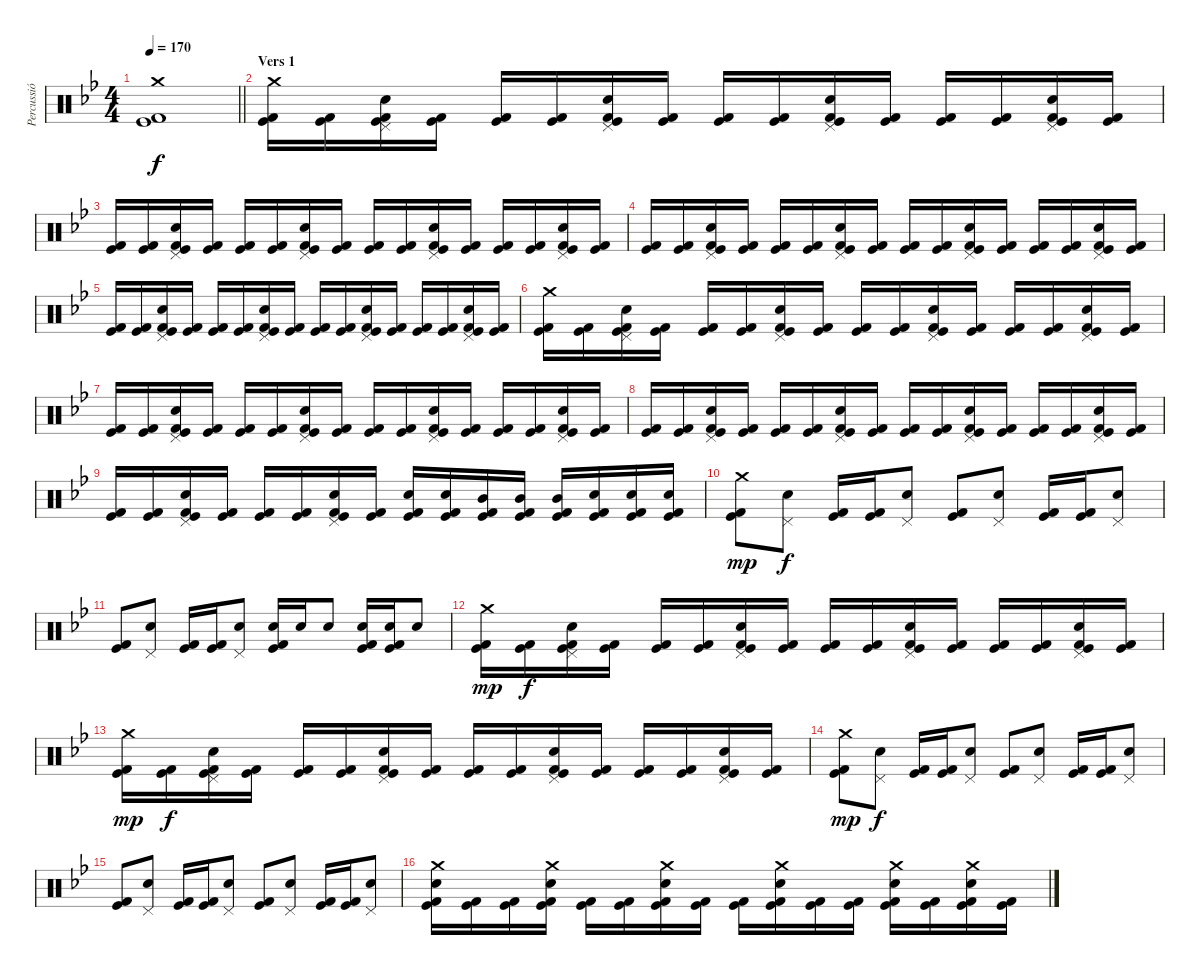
\track ("Percussió" "Percussió") {instrument percussion}
\staff {score}
\articulation defaults
\ts (4 4)
\tempo 170
\clef neutral
\barLineRight lightlight
\ks gminor
("Crash medium (hit)" "Kick (hit)" "Kick (hit) 2").1{dy f} |
\section ("" "Vers 1")
("Crash medium (hit)" "Kick (hit)" "Kick (hit) 2").16 ("Kick (hit)" "Kick (hit) 2").16 ("Pedal Hi-Hat (hit)" "Electric Snare (hit)" "Kick (hit)" "Kick (hit) 2").16 ("Kick (hit)" "Kick (hit) 2").16 ("Kick (hit)" "Kick (hit) 2").16 ("Kick (hit)" "Kick (hit) 2").16 ("Pedal Hi-Hat (hit)" "Electric Snare (hit)" "Kick (hit)" "Kick (hit) 2").16 ("Kick (hit)" "Kick (hit) 2").16 ("Kick (hit)" "Kick (hit) 2").16 ("Kick (hit)" "Kick (hit) 2").16 ("Pedal Hi-Hat (hit)" "Electric Snare (hit)" "Kick (hit)" "Kick (hit) 2").16 ("Kick (hit)" "Kick (hit) 2").16 ("Kick (hit)" "Kick (hit) 2").16 ("Kick (hit)" "Kick (hit) 2").16 ("Pedal Hi-Hat (hit)" "Electric Snare (hit)" "Kick (hit)" "Kick (hit) 2").16 ("Kick (hit)" "Kick (hit) 2").16 |
("Kick (hit)" "Kick (hit) 2").16 ("Kick (hit)" "Kick (hit) 2").16 ("Pedal Hi-Hat (hit)" "Electric Snare (hit)" "Kick (hit)" "Kick (hit) 2").16 ("Kick (hit)" "Kick (hit) 2").16 ("Kick (hit)" "Kick (hit) 2").16 ("Kick (hit)" "Kick (hit) 2").16 ("Pedal Hi-Hat (hit)" "Electric Snare (hit)" "Kick (hit)" "Kick (hit) 2").16 ("Kick (hit)" "Kick (hit) 2").16 ("Kick (hit)" "Kick (hit) 2").16 ("Kick (hit)" "Kick (hit) 2").16 ("Pedal Hi-Hat (hit)" "Electric Snare (hit)" "Kick (hit)" "Kick (hit) 2").16 ("Kick (hit)" "Kick (hit) 2").16 ("Kick (hit)" "Kick (hit) 2").16 ("Kick (hit)" "Kick (hit) 2").16 ("Pedal Hi-Hat (hit)" "Electric Snare (hit)" "Kick (hit)" "Kick (hit) 2").16 ("Kick (hit)" "Kick (hit) 2").16 |
("Kick (hit)" "Kick (hit) 2").16 ("Kick (hit)" "Kick (hit) 2").16 ("Pedal Hi-Hat (hit)" "Electric Snare (hit)" "Kick (hit)" "Kick (hit) 2").16 ("Kick (hit)" "Kick (hit) 2").16 ("Kick (hit)" "Kick (hit) 2").16 ("Kick (hit)" "Kick (hit) 2").16 ("Pedal Hi-Hat (hit)" "Electric Snare (hit)" "Kick (hit)" "Kick (hit) 2").16 ("Kick (hit)" "Kick (hit) 2").16 ("Kick (hit)" "Kick (hit) 2").16 ("Kick (hit)" "Kick (hit) 2").16 ("Pedal Hi-Hat (hit)" "Electric Snare (hit)" "Kick (hit)" "Kick (hit) 2").16 ("Kick (hit)" "Kick (hit) 2").16 ("Kick (hit)" "Kick (hit) 2").16 ("Kick (hit)" "Kick (hit) 2").16 ("Pedal Hi-Hat (hit)" "Electric Snare (hit)" "Kick (hit)" "Kick (hit) 2").16 ("Kick (hit)" "Kick (hit) 2").16 |
("Kick (hit)" "Kick (hit) 2").16 ("Kick (hit)" "Kick (hit) 2").16 ("Pedal Hi-Hat (hit)" "Electric Snare (hit)" "Kick (hit)" "Kick (hit) 2").16 ("Kick (hit)" "Kick (hit) 2").16 ("Kick (hit)" "Kick (hit) 2").16 ("Kick (hit)" "Kick (hit) 2").16 ("Pedal Hi-Hat (hit)" "Electric Snare (hit)" "Kick (hit)" "Kick (hit) 2").16 ("Kick (hit)" "Kick (hit) 2").16 ("Kick (hit)" "Kick (hit) 2").16 ("Kick (hit)" "Kick (hit) 2").16 ("Pedal Hi-Hat (hit)" "Electric Snare (hit)" "Kick (hit)" "Kick (hit) 2").16 ("Kick (hit)" "Kick (hit) 2").16 ("Kick (hit)" "Kick (hit) 2").16 ("Kick (hit)" "Kick (hit) 2").16 ("Pedal Hi-Hat (hit)" "Electric Snare (hit)" "Kick (hit)" "Kick (hit) 2").16 ("Kick (hit)" "Kick (hit) 2").16 |
("Crash medium (hit)" "Kick (hit)" "Kick (hit) 2").16 ("Kick (hit)" "Kick (hit) 2").16 ("Pedal Hi-Hat (hit)" "Electric Snare (hit)" "Kick (hit)" "Kick (hit) 2").16 ("Kick (hit)" "Kick (hit) 2").16 ("Kick (hit)" "Kick (hit) 2").16 ("Kick (hit)" "Kick (hit) 2").16 ("Pedal Hi-Hat (hit)" "Electric Snare (hit)" "Kick (hit)" "Kick (hit) 2").16 ("Kick (hit)" "Kick (hit) 2").16 ("Kick (hit)" "Kick (hit) 2").16 ("Kick (hit)" "Kick (hit) 2").16 ("Pedal Hi-Hat (hit)" "Electric Snare (hit)" "Kick (hit)" "Kick (hit) 2").16 ("Kick (hit)" "Kick (hit) 2").16 ("Kick (hit)" "Kick (hit) 2").16 ("Kick (hit)" "Kick (hit) 2").16 ("Pedal Hi-Hat (hit)" "Electric Snare (hit)" "Kick (hit)" "Kick (hit) 2").16 ("Kick (hit)" "Kick (hit) 2").16 |
("Kick (hit)" "Kick (hit) 2").16 ("Kick (hit)" "Kick (hit) 2").16 ("Pedal Hi-Hat (hit)" "Electric Snare (hit)" "Kick (hit)" "Kick (hit) 2").16 ("Kick (hit)" "Kick (hit) 2").16 ("Kick (hit)" "Kick (hit) 2").16 ("Kick (hit)" "Kick (hit) 2").16 ("Pedal Hi-Hat (hit)" "Electric Snare (hit)" "Kick (hit)" "Kick (hit) 2").16 ("Kick (hit)" "Kick (hit) 2").16 ("Kick (hit)" "Kick (hit) 2").16 ("Kick (hit)" "Kick (hit) 2").16 ("Pedal Hi-Hat (hit)" "Electric Snare (hit)" "Kick (hit)" "Kick (hit) 2").16 ("Kick (hit)" "Kick (hit) 2").16 ("Kick (hit)" "Kick (hit) 2").16 ("Kick (hit)" "Kick (hit) 2").16 ("Pedal Hi-Hat (hit)" "Electric Snare (hit)" "Kick (hit)" "Kick (hit) 2").16 ("Kick (hit)" "Kick (hit) 2").16 |
("Kick (hit)" "Kick (hit) 2").16 ("Kick (hit)" "Kick (hit) 2").16 ("Pedal Hi-Hat (hit)" "Electric Snare (hit)" "Kick (hit)" "Kick (hit) 2").16 ("Kick (hit)" "Kick (hit) 2").16 ("Kick (hit)" "Kick (hit) 2").16 ("Kick (hit)" "Kick (hit) 2").16 ("Pedal Hi-Hat (hit)" "Electric Snare (hit)" "Kick (hit)" "Kick (hit) 2").16 ("Kick (hit)" "Kick (hit) 2").16 ("Kick (hit)" "Kick (hit) 2").16 ("Kick (hit)" "Kick (hit) 2").16 ("Pedal Hi-Hat (hit)" "Electric Snare (hit)" "Kick (hit)" "Kick (hit) 2").16 ("Kick (hit)" "Kick (hit) 2").16 ("Kick (hit)" "Kick (hit) 2").16 ("Kick (hit)" "Kick (hit) 2").16 ("Pedal Hi-Hat (hit)" "Electric Snare (hit)" "Kick (hit)" "Kick (hit) 2").16 ("Kick (hit)" "Kick (hit) 2").16 |
("Kick (hit)" "Kick (hit) 2").16 ("Kick (hit)" "Kick (hit) 2").16 ("Pedal Hi-Hat (hit)" "Electric Snare (hit)" "Kick (hit)" "Kick (hit) 2").16 ("Kick (hit)" "Kick (hit) 2").16 ("Kick (hit)" "Kick (hit) 2").16 ("Kick (hit)" "Kick (hit) 2").16 ("Pedal Hi-Hat (hit)" "Electric Snare (hit)" "Kick (hit)" "Kick (hit) 2").16 ("Kick (hit)" "Kick (hit) 2").16 ("Electric Snare (hit)" "Kick (hit)" "Kick (hit) 2").16 ("Electric Snare (hit)" "Kick (hit)" "Kick (hit) 2").16 ("Mid Tom (hit)" "Kick (hit)" "Kick (hit) 2").16 ("Mid Tom (hit)" "Kick (hit)" "Kick (hit) 2").16 ("Mid Tom (hit)" "Kick (hit)" "Kick (hit) 2").16 ("Electric Snare (hit)" "Kick (hit)" "Kick (hit) 2").16 ("Electric Snare (hit)" "Kick (hit)" "Kick (hit) 2").16 ("Electric Snare (hit)" "Kick (hit)" "Kick (hit) 2").16 |
("Crash medium (hit)" "Kick (hit)" "Kick (hit) 2").8{dy mp} ("Pedal Hi-Hat (hit)" "Electric Snare (hit)").8{dy f} ("Kick (hit)" "Kick (hit) 2").16 ("Kick (hit)" "Kick (hit) 2").16 ("Pedal Hi-Hat (hit)" "Electric Snare (hit)").8 ("Kick (hit)" "Kick (hit) 2").8 ("Pedal Hi-Hat (hit)" "Electric Snare (hit)").8 ("Kick (hit)" "Kick (hit) 2").16 ("Kick (hit)" "Kick (hit) 2").16 ("Pedal Hi-Hat (hit)" "Electric Snare (hit)").8 |
("Kick (hit)" "Kick (hit) 2").8 ("Pedal Hi-Hat (hit)" "Electric Snare (hit)").8 ("Kick (hit)" "Kick (hit) 2").16 ("Kick (hit)" "Kick (hit) 2").16 ("Pedal Hi-Hat (hit)" "Electric Snare (hit)").8 ("Electric Snare (hit)" "Kick (hit)" "Kick (hit) 2").16 "Electric Snare (hit)".16 "Electric Snare (hit)".8 ("Electric Snare (hit)" "Kick (hit)" "Kick (hit) 2").16 ("Electric Snare (hit)" "Kick (hit)" "Kick (hit) 2").16 "Electric Snare (hit)".8 |
("Crash medium (hit)" "Kick (hit)" "Kick (hit) 2").16{dy mp} ("Kick (hit)" "Kick (hit) 2").16{dy f} ("Pedal Hi-Hat (hit)" "Electric Snare (hit)" "Kick (hit)" "Kick (hit) 2").16 ("Kick (hit)" "Kick (hit) 2").16 ("Kick (hit)" "Kick (hit) 2").16 ("Kick (hit)" "Kick (hit) 2").16 ("Pedal Hi-Hat (hit)" "Electric Snare (hit)" "Kick (hit)" "Kick (hit) 2").16 ("Kick (hit)" "Kick (hit) 2").16 ("Kick (hit)" "Kick (hit) 2").16 ("Kick (hit)" "Kick (hit) 2").16 ("Pedal Hi-Hat (hit)" "Electric Snare (hit)" "Kick (hit)" "Kick (hit) 2").16 ("Kick (hit)" "Kick (hit) 2").16 ("Kick (hit)" "Kick (hit) 2").16 ("Kick (hit)" "Kick (hit) 2").16 ("Pedal Hi-Hat (hit)" "Electric Snare (hit)" "Kick (hit)" "Kick (hit) 2").16 ("Kick (hit)" "Kick (hit) 2").16 |
("Crash medium (hit)" "Kick (hit)" "Kick (hit) 2").16{dy mp} ("Kick (hit)" "Kick (hit) 2").16{dy f} ("Pedal Hi-Hat (hit)" "Electric Snare (hit)" "Kick (hit)" "Kick (hit) 2").16 ("Kick (hit)" "Kick (hit) 2").16 ("Kick (hit)" "Kick (hit) 2").16 ("Kick (hit)" "Kick (hit) 2").16 ("Pedal Hi-Hat (hit)" "Electric Snare (hit)" "Kick (hit)" "Kick (hit) 2").16 ("Kick (hit)" "Kick (hit) 2").16 ("Kick (hit)" "Kick (hit) 2").16 ("Kick (hit)" "Kick (hit) 2").16 ("Pedal Hi-Hat (hit)" "Electric Snare (hit)" "Kick (hit)" "Kick (hit) 2").16 ("Kick (hit)" "Kick (hit) 2").16 ("Kick (hit)" "Kick (hit) 2").16 ("Kick (hit)" "Kick (hit) 2").16 ("Pedal Hi-Hat (hit)" "Electric Snare (hit)" "Kick (hit)" "Kick (hit) 2").16 ("Kick (hit)" "Kick (hit) 2").16 |
("Crash medium (hit)" "Kick (hit)" "Kick (hit) 2").8{dy mp} ("Pedal Hi-Hat (hit)" "Electric Snare (hit)").8{dy f} ("Kick (hit)" "Kick (hit) 2").16 ("Kick (hit)" "Kick (hit) 2").16 ("Pedal Hi-Hat (hit)" "Electric Snare (hit)").8 ("Kick (hit)" "Kick (hit) 2").8 ("Pedal Hi-Hat (hit)" "Electric Snare (hit)").8 ("Kick (hit)" "Kick (hit) 2").16 ("Kick (hit)" "Kick (hit) 2").16 ("Pedal Hi-Hat (hit)" "Electric Snare (hit)").8 |
("Kick (hit)" "Kick (hit) 2").8 ("Pedal Hi-Hat (hit)" "Electric Snare (hit)").8 ("Kick (hit)" "Kick (hit) 2").16 ("Kick (hit)" "Kick (hit) 2").16 ("Pedal Hi-Hat (hit)" "Electric Snare (hit)").8 ("Kick (hit)" "Kick (hit) 2").8 ("Pedal Hi-Hat (hit)" "Electric Snare (hit)").8 ("Kick (hit)" "Kick (hit) 2").16 ("Kick (hit)" "Kick (hit) 2").16 ("Pedal Hi-Hat (hit)" "Electric Snare (hit)").8 |
("Crash medium (hit)" "Electric Snare (hit)" "Kick (hit)" "Kick (hit) 2").16 ("Kick (hit)" "Kick (hit) 2").16 ("Kick (hit)" "Kick (hit) 2").16 ("Crash medium (hit)" "Electric Snare (hit)" "Kick (hit)" "Kick (hit) 2").16 ("Kick (hit)" "Kick (hit) 2").16 ("Kick (hit)" "Kick (hit) 2").16 ("Crash medium (hit)" "Electric Snare (hit)" "Kick (hit)" "Kick (hit) 2").16 ("Kick (hit)" "Kick (hit) 2").16 ("Kick (hit)" "Kick (hit) 2").16 ("Crash medium (hit)" "Electric Snare (hit)" "Kick (hit)" "Kick (hit) 2").16 ("Kick (hit)" "Kick (hit) 2").16 ("Kick (hit)" "Kick (hit) 2").16 ("Crash medium (hit)" "Electric Snare (hit)" "Kick (hit)" "Kick (hit) 2").16 ("Kick (hit)" "Kick (hit) 2").16 ("Crash medium (hit)" "Electric Snare (hit)" "Kick (hit)" "Kick (hit) 2").16 ("Kick (hit)" "Kick (hit) 2").16
